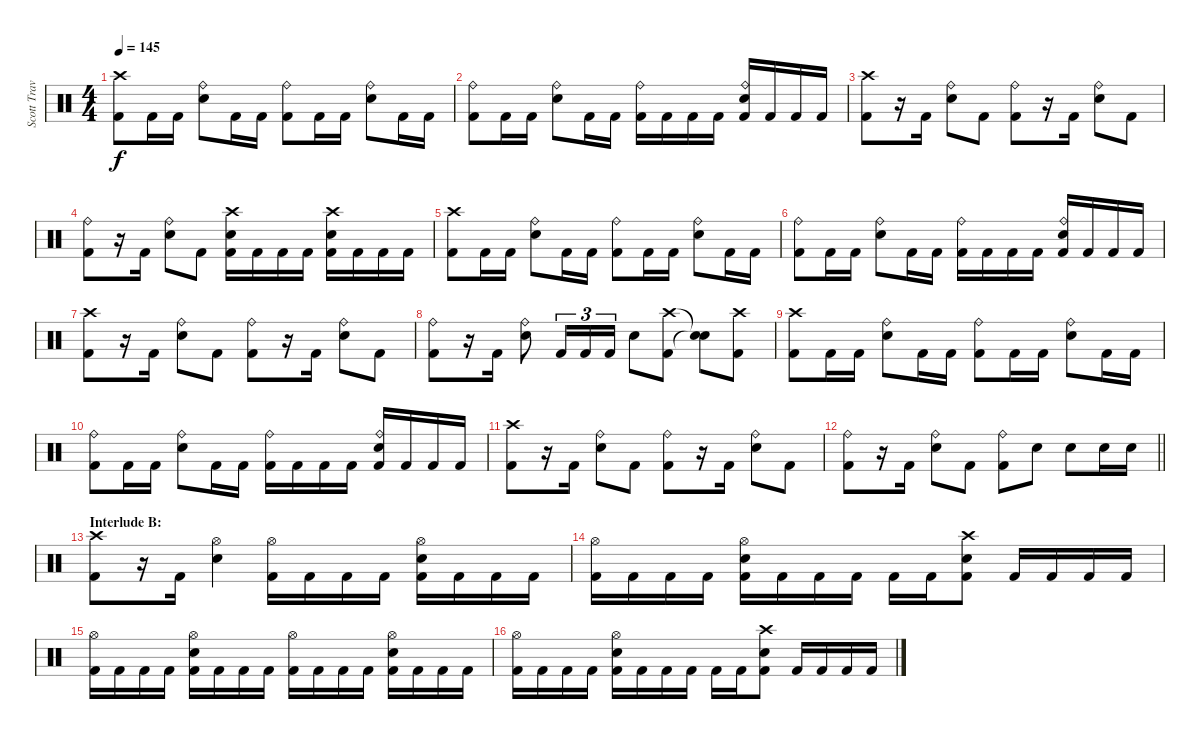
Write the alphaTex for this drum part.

\track ("Scott Travis" "Scott Trav") {instrument percussion}
\staff {score}
\articulation defaults
\ts (4 4)
\tempo 145
\clef neutral
\ks c
("Crash high (hit)" "Kick (hit) 2").8{dy f} "Kick (hit) 2".16 "Kick (hit) 2".16 ("Ride (bell)" "Snare (hit) 2").8 "Kick (hit) 2".16 "Kick (hit) 2".16 ("Ride (bell)" "Kick (hit) 2").8 "Kick (hit) 2".16 "Kick (hit) 2".16 ("Ride (bell)" "Snare (hit) 2").8 "Kick (hit) 2".16 "Kick (hit) 2".16 |
("Ride (bell)" "Kick (hit) 2").8 "Kick (hit) 2".16 "Kick (hit) 2".16 ("Ride (bell)" "Snare (hit) 2").8 "Kick (hit) 2".16 "Kick (hit) 2".16 ("Ride (bell)" "Kick (hit) 2").16 "Kick (hit) 2".16 "Kick (hit) 2".16 "Kick (hit) 2".16 ("Ride (bell)" "Snare (hit) 2" "Kick (hit) 2").16 "Kick (hit) 2".16 "Kick (hit) 2".16 "Kick (hit) 2".16 |
("Crash high (hit)" "Kick (hit) 2").8 r.16 "Kick (hit) 2".16 ("Ride (bell)" "Snare (hit) 2").8 "Kick (hit) 2".8 ("Ride (bell)" "Kick (hit) 2").8 r.16 "Kick (hit) 2".16 ("Ride (bell)" "Snare (hit) 2").8 "Kick (hit) 2".8 |
("Ride (bell)" "Kick (hit) 2").8 r.16 "Kick (hit) 2".16 ("Ride (bell)" "Snare (hit) 2").8 "Kick (hit) 2".8 ("Crash high (hit)" "Snare (hit) 2" "Kick (hit) 2").16 "Kick (hit) 2".16 "Kick (hit) 2".16 "Kick (hit) 2".16 ("Crash high (hit)" "Snare (hit) 2" "Kick (hit) 2").16 "Kick (hit) 2".16 "Kick (hit) 2".16 "Kick (hit) 2".16 |
("Crash high (hit)" "Kick (hit) 2").8 "Kick (hit) 2".16 "Kick (hit) 2".16 ("Ride (bell)" "Snare (hit) 2").8 "Kick (hit) 2".16 "Kick (hit) 2".16 ("Ride (bell)" "Kick (hit) 2").8 "Kick (hit) 2".16 "Kick (hit) 2".16 ("Ride (bell)" "Snare (hit) 2").8 "Kick (hit) 2".16 "Kick (hit) 2".16 |
("Ride (bell)" "Kick (hit) 2").8 "Kick (hit) 2".16 "Kick (hit) 2".16 ("Ride (bell)" "Snare (hit) 2").8 "Kick (hit) 2".16 "Kick (hit) 2".16 ("Ride (bell)" "Kick (hit) 2").16 "Kick (hit) 2".16 "Kick (hit) 2".16 "Kick (hit) 2".16 ("Ride (bell)" "Snare (hit) 2" "Kick (hit) 2").16 "Kick (hit) 2".16 "Kick (hit) 2".16 "Kick (hit) 2".16 |
("Crash high (hit)" "Kick (hit) 2").8 r.16 "Kick (hit) 2".16 ("Ride (bell)" "Snare (hit) 2").8 "Kick (hit) 2".8 ("Ride (bell)" "Kick (hit) 2").8 r.16 "Kick (hit) 2".16 ("Ride (bell)" "Snare (hit) 2").8 "Kick (hit) 2".8 |
("Ride (bell)" "Kick (hit) 2").8 r.16 "Kick (hit) 2".16 ("Ride (bell)" "Snare (hit) 2").8 "Kick (hit) 2".16{tu (3 2)} "Kick (hit) 2".16{tu (3 2)} "Kick (hit) 2".16{tu (3 2)} "Snare (hit) 2".8 ("Crash high (hit)" "Kick (hit) 2").8 ("Snare (hit)"{t} "Snare (hit)"{t}).8 ("Crash high (hit)" "Kick (hit) 2").8 |
("Crash high (hit)" "Kick (hit) 2").8 "Kick (hit) 2".16 "Kick (hit) 2".16 ("Ride (bell)" "Snare (hit) 2").8 "Kick (hit) 2".16 "Kick (hit) 2".16 ("Ride (bell)" "Kick (hit) 2").8 "Kick (hit) 2".16 "Kick (hit) 2".16 ("Ride (bell)" "Snare (hit) 2").8 "Kick (hit) 2".16 "Kick (hit) 2".16 |
("Ride (bell)" "Kick (hit) 2").8 "Kick (hit) 2".16 "Kick (hit) 2".16 ("Ride (bell)" "Snare (hit) 2").8 "Kick (hit) 2".16 "Kick (hit) 2".16 ("Ride (bell)" "Kick (hit) 2").16 "Kick (hit) 2".16 "Kick (hit) 2".16 "Kick (hit) 2".16 ("Ride (bell)" "Snare (hit) 2" "Kick (hit) 2").16 "Kick (hit) 2".16 "Kick (hit) 2".16 "Kick (hit) 2".16 |
("Crash high (hit)" "Kick (hit) 2").8 r.16 "Kick (hit) 2".16 ("Ride (bell)" "Snare (hit) 2").8 "Kick (hit) 2".8 ("Ride (bell)" "Kick (hit) 2").8 r.16 "Kick (hit) 2".16 ("Ride (bell)" "Snare (hit) 2").8 "Kick (hit) 2".8 |
\barLineRight lightlight
("Ride (bell)" "Kick (hit) 2").8 r.16 "Kick (hit) 2".16 ("Ride (bell)" "Snare (hit) 2").8 "Kick (hit) 2".8 ("Ride (bell)" "Kick (hit) 2").8 "Snare (hit) 2".8 "Snare (hit) 2".8 "Snare (hit) 2".16 "Snare (hit) 2".16 |
\section ("" "Interlude B:")
("Crash high (hit)" "Kick (hit) 2").8 r.16 "Kick (hit) 2".16 ("Hi-Hat (open)" "Snare (hit) 2").4 ("Hi-Hat (open)" "Kick (hit) 2").16 "Kick (hit) 2".16 "Kick (hit) 2".16 "Kick (hit) 2".16 ("Hi-Hat (open)" "Snare (hit) 2" "Kick (hit) 2").16 "Kick (hit) 2".16 "Kick (hit) 2".16 "Kick (hit) 2".16 |
("Hi-Hat (open)" "Kick (hit) 2").16 "Kick (hit) 2".16 "Kick (hit) 2".16 "Kick (hit) 2".16 ("Hi-Hat (open)" "Snare (hit) 2" "Kick (hit) 2").16 "Kick (hit) 2".16 "Kick (hit) 2".16 "Kick (hit) 2".16 "Kick (hit) 2".16 "Kick (hit) 2".16 ("Crash high (hit)" "Snare (hit) 2" "Kick (hit) 2").8 "Kick (hit) 2".16 "Kick (hit) 2".16 "Kick (hit) 2".16 "Kick (hit) 2".16 |
("Hi-Hat (open)" "Kick (hit) 2").16 "Kick (hit) 2".16 "Kick (hit) 2".16 "Kick (hit) 2".16 ("Hi-Hat (open)" "Snare (hit) 2" "Kick (hit) 2").16 "Kick (hit) 2".16 "Kick (hit) 2".16 "Kick (hit) 2".16 ("Hi-Hat (open)" "Kick (hit) 2").16 "Kick (hit) 2".16 "Kick (hit) 2".16 "Kick (hit) 2".16 ("Hi-Hat (open)" "Snare (hit) 2" "Kick (hit) 2").16 "Kick (hit) 2".16 "Kick (hit) 2".16 "Kick (hit) 2".16 |
("Hi-Hat (open)" "Kick (hit) 2").16 "Kick (hit) 2".16 "Kick (hit) 2".16 "Kick (hit) 2".16 ("Hi-Hat (open)" "Snare (hit) 2" "Kick (hit) 2").16 "Kick (hit) 2".16 "Kick (hit) 2".16 "Kick (hit) 2".16 "Kick (hit) 2".16 "Kick (hit) 2".16 ("Crash high (hit)" "Snare (hit) 2" "Kick (hit) 2").8 "Kick (hit) 2".16 "Kick (hit) 2".16 "Kick (hit) 2".16 "Kick (hit) 2".16
